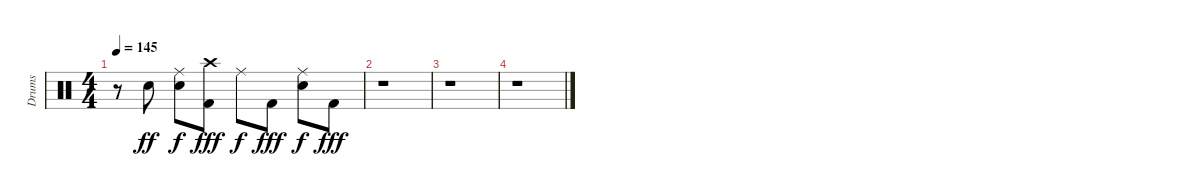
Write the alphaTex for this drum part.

\track ("Drums" "Drums") {instrument percussion}
\staff {score}
\articulation defaults
\ts (4 4)
\tempo 145
\clef neutral
\ks c
r.8{dy fff} "Electric Snare (hit)".8{dy ff} ("Ride (middle)" "Electric Snare (hit)").8{dy f} ("Crash high (hit)" "Kick (hit) 2").8{dy fff} "Ride (middle)".8{dy f} "Kick (hit) 2".8{dy fff} ("Ride (middle)" "Electric Snare (hit)").8{dy f} "Kick (hit) 2".8{dy fff} |
r.1 |
r.1 |
r.1
